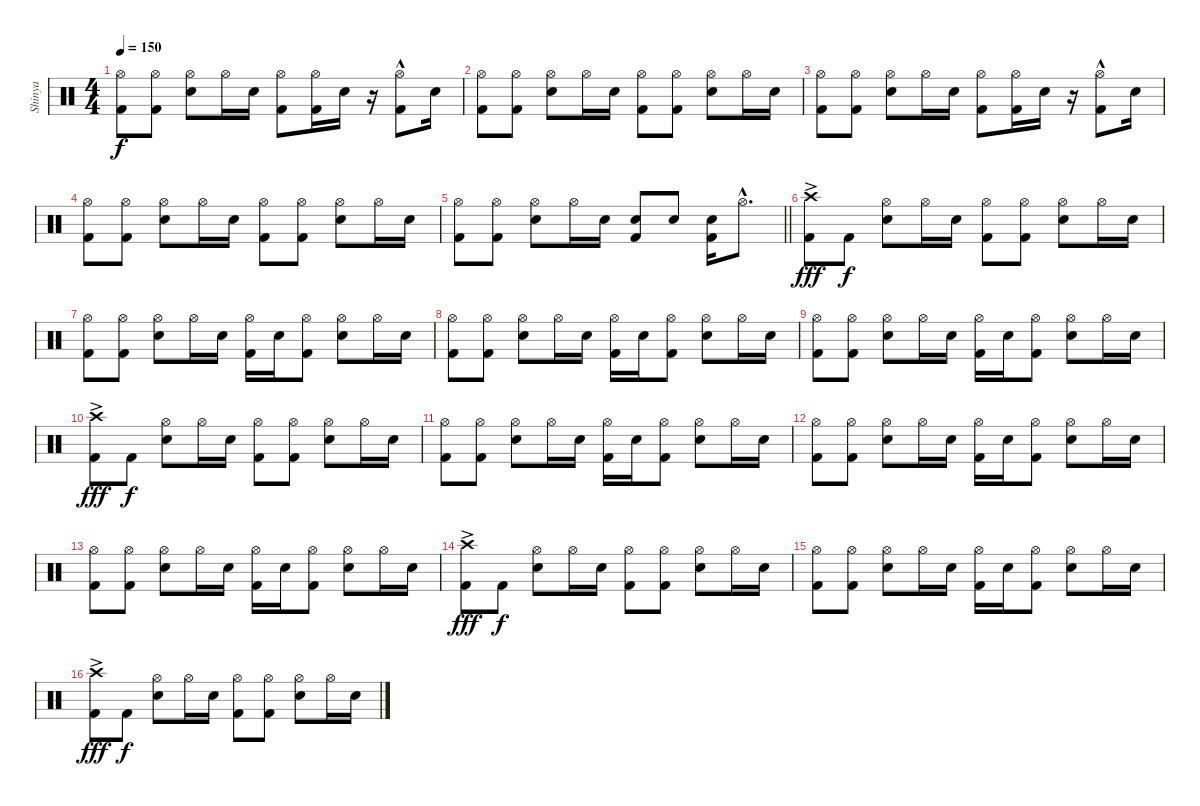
\track ("Shinya" "Shinya") {instrument percussion}
\staff {score}
\articulation defaults
\ts (4 4)
\tempo 150
\clef neutral
\ks c
("Hi-Hat (open)" "Kick (hit) 2").8{dy f} ("Hi-Hat (open)" "Kick (hit) 2").8 ("Hi-Hat (open)" "Snare (hit) 2").8 "Hi-Hat (open)".16 "Snare (hit) 2".16 ("Hi-Hat (open)" "Kick (hit) 2").8 ("Hi-Hat (open)" "Kick (hit) 2").16 "Snare (hit) 2".16 r.16 ("Hi-Hat (open)" "Kick (hit) 2"{hac}).8 "Snare (hit) 2".16 |
("Hi-Hat (open)" "Kick (hit) 2").8 ("Hi-Hat (open)" "Kick (hit) 2").8 ("Hi-Hat (open)" "Snare (hit) 2").8 "Hi-Hat (open)".16 "Snare (hit) 2".16 ("Hi-Hat (open)" "Kick (hit) 2").8 ("Hi-Hat (open)" "Kick (hit) 2").8 ("Hi-Hat (open)" "Snare (hit) 2").8 "Hi-Hat (open)".16 "Snare (hit) 2".16 |
("Hi-Hat (open)" "Kick (hit) 2").8 ("Hi-Hat (open)" "Kick (hit) 2").8 ("Hi-Hat (open)" "Snare (hit) 2").8 "Hi-Hat (open)".16 "Snare (hit) 2".16 ("Hi-Hat (open)" "Kick (hit) 2").8 ("Hi-Hat (open)" "Kick (hit) 2").16 "Snare (hit) 2".16 r.16 ("Hi-Hat (open)" "Kick (hit) 2"{hac}).8 "Snare (hit) 2".16 |
("Hi-Hat (open)" "Kick (hit) 2").8 ("Hi-Hat (open)" "Kick (hit) 2").8 ("Hi-Hat (open)" "Snare (hit) 2").8 "Hi-Hat (open)".16 "Snare (hit) 2".16 ("Hi-Hat (open)" "Kick (hit) 2").8 ("Hi-Hat (open)" "Kick (hit) 2").8 ("Hi-Hat (open)" "Snare (hit) 2").8 "Hi-Hat (open)".16 "Snare (hit) 2".16 |
\barLineRight lightlight
("Hi-Hat (open)" "Kick (hit) 2").8 ("Hi-Hat (open)" "Kick (hit) 2").8 ("Hi-Hat (open)" "Snare (hit) 2").8 "Hi-Hat (open)".16 "Snare (hit) 2".16 ("Snare (hit) 2" "Kick (hit) 2").8 "Snare (hit) 2".8 ("Snare (hit) 2" "Kick (hit) 2").16 "Hi-Hat (open)"{hac}.8{d} |
("Crash high (hit)"{ac} "Kick (hit) 2").8{dy fff} "Kick (hit) 2".8{dy f} ("Hi-Hat (open)" "Snare (hit) 2").8 "Hi-Hat (open)".16 "Snare (hit) 2".16 ("Hi-Hat (open)" "Kick (hit) 2").8 ("Hi-Hat (open)" "Kick (hit) 2").8 ("Hi-Hat (open)" "Snare (hit) 2").8 "Hi-Hat (open)".16 "Snare (hit) 2".16 |
("Hi-Hat (open)" "Kick (hit) 2").8 ("Hi-Hat (open)" "Kick (hit) 2").8 ("Hi-Hat (open)" "Snare (hit) 2").8 "Hi-Hat (open)".16 "Snare (hit) 2".16 ("Hi-Hat (open)" "Kick (hit) 2").16 "Snare (hit) 2".16 ("Hi-Hat (open)" "Kick (hit) 2").8 ("Hi-Hat (open)" "Snare (hit) 2").8 "Hi-Hat (open)".16 "Snare (hit) 2".16 |
("Hi-Hat (open)" "Kick (hit) 2").8 ("Hi-Hat (open)" "Kick (hit) 2").8 ("Hi-Hat (open)" "Snare (hit) 2").8 "Hi-Hat (open)".16 "Snare (hit) 2".16 ("Hi-Hat (open)" "Kick (hit) 2").16 "Snare (hit) 2".16 ("Hi-Hat (open)" "Kick (hit) 2").8 ("Hi-Hat (open)" "Snare (hit) 2").8 "Hi-Hat (open)".16 "Snare (hit) 2".16 |
("Hi-Hat (open)" "Kick (hit) 2").8 ("Hi-Hat (open)" "Kick (hit) 2").8 ("Hi-Hat (open)" "Snare (hit) 2").8 "Hi-Hat (open)".16 "Snare (hit) 2".16 ("Hi-Hat (open)" "Kick (hit) 2").16 "Snare (hit) 2".16 ("Hi-Hat (open)" "Kick (hit) 2").8 ("Hi-Hat (open)" "Snare (hit) 2").8 "Hi-Hat (open)".16 "Snare (hit) 2".16 |
("Crash high (hit)"{ac} "Kick (hit) 2").8{dy fff} "Kick (hit) 2".8{dy f} ("Hi-Hat (open)" "Snare (hit) 2").8 "Hi-Hat (open)".16 "Snare (hit) 2".16 ("Hi-Hat (open)" "Kick (hit) 2").8 ("Hi-Hat (open)" "Kick (hit) 2").8 ("Hi-Hat (open)" "Snare (hit) 2").8 "Hi-Hat (open)".16 "Snare (hit) 2".16 |
("Hi-Hat (open)" "Kick (hit) 2").8 ("Hi-Hat (open)" "Kick (hit) 2").8 ("Hi-Hat (open)" "Snare (hit) 2").8 "Hi-Hat (open)".16 "Snare (hit) 2".16 ("Hi-Hat (open)" "Kick (hit) 2").16 "Snare (hit) 2".16 ("Hi-Hat (open)" "Kick (hit) 2").8 ("Hi-Hat (open)" "Snare (hit) 2").8 "Hi-Hat (open)".16 "Snare (hit) 2".16 |
("Hi-Hat (open)" "Kick (hit) 2").8 ("Hi-Hat (open)" "Kick (hit) 2").8 ("Hi-Hat (open)" "Snare (hit) 2").8 "Hi-Hat (open)".16 "Snare (hit) 2".16 ("Hi-Hat (open)" "Kick (hit) 2").16 "Snare (hit) 2".16 ("Hi-Hat (open)" "Kick (hit) 2").8 ("Hi-Hat (open)" "Snare (hit) 2").8 "Hi-Hat (open)".16 "Snare (hit) 2".16 |
("Hi-Hat (open)" "Kick (hit) 2").8 ("Hi-Hat (open)" "Kick (hit) 2").8 ("Hi-Hat (open)" "Snare (hit) 2").8 "Hi-Hat (open)".16 "Snare (hit) 2".16 ("Hi-Hat (open)" "Kick (hit) 2").16 "Snare (hit) 2".16 ("Hi-Hat (open)" "Kick (hit) 2").8 ("Hi-Hat (open)" "Snare (hit) 2").8 "Hi-Hat (open)".16 "Snare (hit) 2".16 |
("Crash high (hit)"{ac} "Kick (hit) 2").8{dy fff} "Kick (hit) 2".8{dy f} ("Hi-Hat (open)" "Snare (hit) 2").8 "Hi-Hat (open)".16 "Snare (hit) 2".16 ("Hi-Hat (open)" "Kick (hit) 2").8 ("Hi-Hat (open)" "Kick (hit) 2").8 ("Hi-Hat (open)" "Snare (hit) 2").8 "Hi-Hat (open)".16 "Snare (hit) 2".16 |
("Hi-Hat (open)" "Kick (hit) 2").8 ("Hi-Hat (open)" "Kick (hit) 2").8 ("Hi-Hat (open)" "Snare (hit) 2").8 "Hi-Hat (open)".16 "Snare (hit) 2".16 ("Hi-Hat (open)" "Kick (hit) 2").16 "Snare (hit) 2".16 ("Hi-Hat (open)" "Kick (hit) 2").8 ("Hi-Hat (open)" "Snare (hit) 2").8 "Hi-Hat (open)".16 "Snare (hit) 2".16 |
("Crash high (hit)"{ac} "Kick (hit) 2").8{dy fff} "Kick (hit) 2".8{dy f} ("Hi-Hat (open)" "Snare (hit) 2").8 "Hi-Hat (open)".16 "Snare (hit) 2".16 ("Hi-Hat (open)" "Kick (hit) 2").8 ("Hi-Hat (open)" "Kick (hit) 2").8 ("Hi-Hat (open)" "Snare (hit) 2").8 "Hi-Hat (open)".16 "Snare (hit) 2".16
